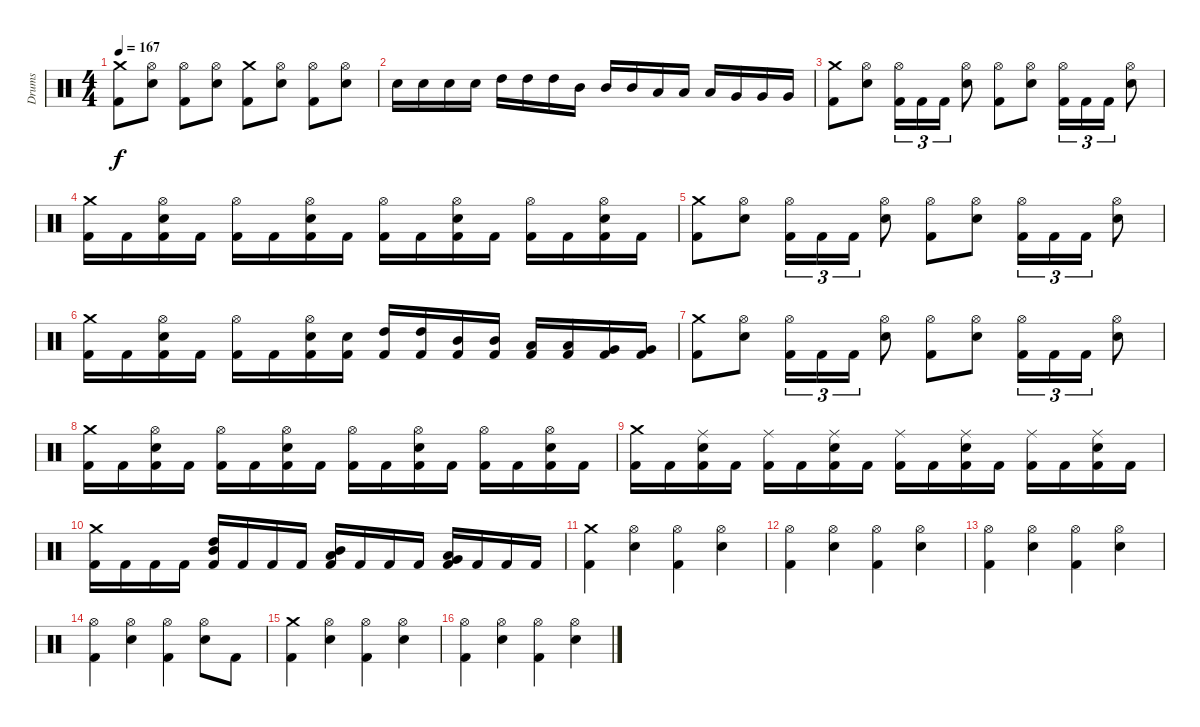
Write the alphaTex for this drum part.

\track ("Drums" "Drums") {instrument percussion}
\staff {score}
\articulation defaults
\ts (4 4)
\tempo 167
\clef neutral
\ks c
("Kick (hit) 2" "Crash medium (hit)").8{dy f} ("Electric Snare (hit)" "Hi-Hat (open)").8 ("Kick (hit) 2" "Hi-Hat (open)").8 ("Electric Snare (hit)" "Hi-Hat (open)").8 ("Kick (hit) 2" "Crash medium (hit)").8 ("Electric Snare (hit)" "Hi-Hat (open)").8 ("Kick (hit) 2" "Hi-Hat (open)").8 ("Electric Snare (hit)" "Hi-Hat (open)").8 |
"Electric Snare (hit)".16 "Electric Snare (hit)".16 "Electric Snare (hit)".16 "Electric Snare (hit)".16 "High Tom (hit)".16 "High Tom (hit)".16 "High Tom (hit)".16 "Mid Tom (hit)".16 "Mid Tom (hit)".16 "Mid Tom (hit)".16 "Low Tom (hit)".16 "Low Tom (hit)".16 "Low Tom (hit)".16 "Very Low Tom (hit)".16 "Very Low Tom (hit)".16 "Very Low Tom (hit)".16 |
("Kick (hit) 2" "Crash medium (hit)").8 ("Electric Snare (hit)" "Hi-Hat (open)").8 ("Kick (hit) 2" "Hi-Hat (open)").16{tu (3 2)} "Kick (hit) 2".16{tu (3 2)} "Kick (hit) 2".16{tu (3 2)} ("Electric Snare (hit)" "Hi-Hat (open)").8 ("Kick (hit) 2" "Hi-Hat (open)").8 ("Electric Snare (hit)" "Hi-Hat (open)").8 ("Kick (hit) 2" "Hi-Hat (open)").16{tu (3 2)} "Kick (hit) 2".16{tu (3 2)} "Kick (hit) 2".16{tu (3 2)} ("Electric Snare (hit)" "Hi-Hat (open)").8 |
("Kick (hit) 2" "Crash medium (hit)").16 "Kick (hit) 2".16 ("Kick (hit) 2" "Electric Snare (hit)" "Hi-Hat (open)").16 "Kick (hit) 2".16 ("Kick (hit) 2" "Hi-Hat (open)").16 "Kick (hit) 2".16 ("Kick (hit) 2" "Electric Snare (hit)" "Hi-Hat (open)").16 "Kick (hit) 2".16 ("Kick (hit) 2" "Hi-Hat (open)").16 "Kick (hit) 2".16 ("Kick (hit) 2" "Electric Snare (hit)" "Hi-Hat (open)").16 "Kick (hit) 2".16 ("Kick (hit) 2" "Hi-Hat (open)").16 "Kick (hit) 2".16 ("Kick (hit) 2" "Electric Snare (hit)" "Hi-Hat (open)").16 "Kick (hit) 2".16 |
("Kick (hit) 2" "Crash medium (hit)").8 ("Electric Snare (hit)" "Hi-Hat (open)").8 ("Kick (hit) 2" "Hi-Hat (open)").16{tu (3 2)} "Kick (hit) 2".16{tu (3 2)} "Kick (hit) 2".16{tu (3 2)} ("Electric Snare (hit)" "Hi-Hat (open)").8 ("Kick (hit) 2" "Hi-Hat (open)").8 ("Electric Snare (hit)" "Hi-Hat (open)").8 ("Kick (hit) 2" "Hi-Hat (open)").16{tu (3 2)} "Kick (hit) 2".16{tu (3 2)} "Kick (hit) 2".16{tu (3 2)} ("Electric Snare (hit)" "Hi-Hat (open)").8 |
("Kick (hit) 2" "Crash medium (hit)").16 "Kick (hit) 2".16 ("Kick (hit) 2" "Electric Snare (hit)" "Hi-Hat (open)").16 "Kick (hit) 2".16 ("Kick (hit) 2" "Hi-Hat (open)").16 "Kick (hit) 2".16 ("Kick (hit) 2" "Electric Snare (hit)" "Hi-Hat (open)").16 ("Kick (hit) 2" "Electric Snare (hit)").16 ("Kick (hit) 2" "High Tom (hit)").16 ("Kick (hit) 2" "High Tom (hit)").16 ("Kick (hit) 2" "Mid Tom (hit)").16 ("Kick (hit) 2" "Mid Tom (hit)").16 ("Kick (hit) 2" "Low Tom (hit)").16 ("Kick (hit) 2" "Low Tom (hit)").16 ("Kick (hit) 2" "Very Low Tom (hit)").16 ("Kick (hit) 2" "Very Low Tom (hit)").16 |
("Kick (hit) 2" "Crash medium (hit)").8 ("Electric Snare (hit)" "Hi-Hat (open)").8 ("Kick (hit) 2" "Hi-Hat (open)").16{tu (3 2)} "Kick (hit) 2".16{tu (3 2)} "Kick (hit) 2".16{tu (3 2)} ("Electric Snare (hit)" "Hi-Hat (open)").8 ("Kick (hit) 2" "Hi-Hat (open)").8 ("Electric Snare (hit)" "Hi-Hat (open)").8 ("Kick (hit) 2" "Hi-Hat (open)").16{tu (3 2)} "Kick (hit) 2".16{tu (3 2)} "Kick (hit) 2".16{tu (3 2)} ("Electric Snare (hit)" "Hi-Hat (open)").8 |
("Kick (hit) 2" "Crash medium (hit)").16 "Kick (hit) 2".16 ("Kick (hit) 2" "Electric Snare (hit)" "Hi-Hat (open)").16 "Kick (hit) 2".16 ("Kick (hit) 2" "Hi-Hat (open)").16 "Kick (hit) 2".16 ("Kick (hit) 2" "Electric Snare (hit)" "Hi-Hat (open)").16 "Kick (hit) 2".16 ("Kick (hit) 2" "Hi-Hat (open)").16 "Kick (hit) 2".16 ("Kick (hit) 2" "Electric Snare (hit)" "Hi-Hat (open)").16 "Kick (hit) 2".16 ("Kick (hit) 2" "Hi-Hat (open)").16 "Kick (hit) 2".16 ("Kick (hit) 2" "Electric Snare (hit)" "Hi-Hat (open)").16 "Kick (hit) 2".16 |
("Kick (hit) 2" "Crash medium (hit)").16 "Kick (hit) 2".16 ("Kick (hit) 2" "Electric Snare (hit)" "Ride (middle)").16 "Kick (hit) 2".16 ("Kick (hit) 2" "Ride (middle)").16 "Kick (hit) 2".16 ("Kick (hit) 2" "Electric Snare (hit)" "Ride (middle)").16 "Kick (hit) 2".16 ("Kick (hit) 2" "Ride (middle)").16 "Kick (hit) 2".16 ("Kick (hit) 2" "Electric Snare (hit)" "Ride (middle)").16 "Kick (hit) 2".16 ("Kick (hit) 2" "Ride (middle)").16 "Kick (hit) 2".16 ("Kick (hit) 2" "Electric Snare (hit)" "Ride (middle)").16 "Kick (hit) 2".16 |
("Kick (hit) 2" "Crash medium (hit)").16 "Kick (hit) 2".16 "Kick (hit) 2".16 "Kick (hit) 2".16 ("Kick (hit) 2" "Mid Tom (hit)" "High Tom (hit)").16 "Kick (hit) 2".16 "Kick (hit) 2".16 "Kick (hit) 2".16 ("Kick (hit) 2" "Low Tom (hit)" "Mid Tom (hit)").16 "Kick (hit) 2".16 "Kick (hit) 2".16 "Kick (hit) 2".16 ("Kick (hit) 2" "Very Low Tom (hit)" "Low Tom (hit)").16 "Kick (hit) 2".16 "Kick (hit) 2".16 "Kick (hit) 2".16 |
("Kick (hit) 2" "Crash medium (hit)").4 ("Electric Snare (hit)" "Hi-Hat (open)").4 ("Kick (hit) 2" "Hi-Hat (open)").4 ("Electric Snare (hit)" "Hi-Hat (open)").4 |
("Kick (hit) 2" "Hi-Hat (open)").4 ("Electric Snare (hit)" "Hi-Hat (open)").4 ("Kick (hit) 2" "Hi-Hat (open)").4 ("Electric Snare (hit)" "Hi-Hat (open)").4 |
("Kick (hit) 2" "Hi-Hat (open)").4 ("Electric Snare (hit)" "Hi-Hat (open)").4 ("Kick (hit) 2" "Hi-Hat (open)").4 ("Electric Snare (hit)" "Hi-Hat (open)").4 |
("Kick (hit) 2" "Hi-Hat (open)").4 ("Electric Snare (hit)" "Hi-Hat (open)").4 ("Kick (hit) 2" "Hi-Hat (open)").4 ("Electric Snare (hit)" "Hi-Hat (open)").8 "Kick (hit) 2".8 |
("Kick (hit) 2" "Crash medium (hit)").4 ("Electric Snare (hit)" "Hi-Hat (open)").4 ("Kick (hit) 2" "Hi-Hat (open)").4 ("Electric Snare (hit)" "Hi-Hat (open)").4 |
("Kick (hit) 2" "Hi-Hat (open)").4 ("Electric Snare (hit)" "Hi-Hat (open)").4 ("Kick (hit) 2" "Hi-Hat (open)").4 ("Electric Snare (hit)" "Hi-Hat (open)").4
